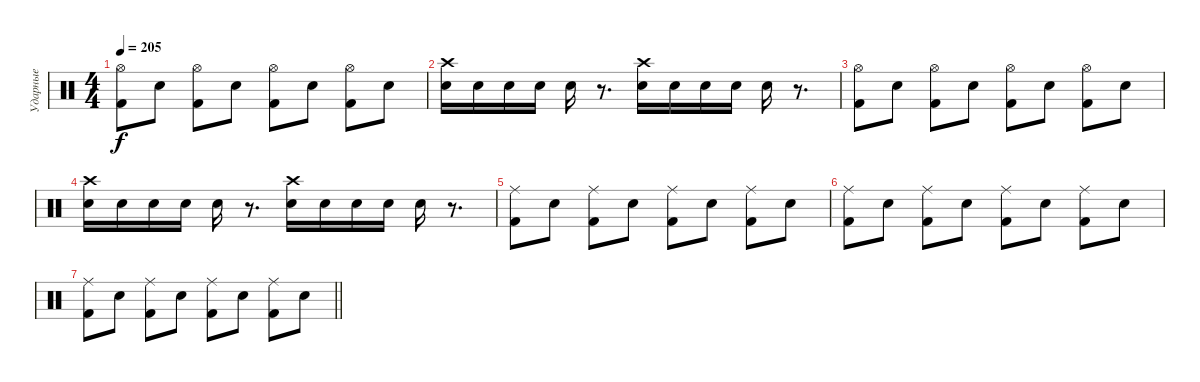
\track ("Ударные" "Ударные") {instrument percussion}
\staff {score}
\articulation defaults
\ts (4 4)
\tempo 205
\clef neutral
\ks c
("Hi-Hat (open)" "Kick (hit) 2").8{dy f} "Snare (hit) 2".8 ("Hi-Hat (open)" "Kick (hit) 2").8 "Snare (hit) 2".8 ("Hi-Hat (open)" "Kick (hit) 2").8 "Snare (hit) 2".8 ("Hi-Hat (open)" "Kick (hit) 2").8 "Snare (hit) 2".8 |
("Crash high (hit)" "Snare (hit) 2").16 "Snare (hit) 2".16 "Snare (hit) 2".16 "Snare (hit) 2".16 "Snare (hit) 2".16 r.8{d} ("Crash high (hit)" "Snare (hit) 2").16 "Snare (hit) 2".16 "Snare (hit) 2".16 "Snare (hit) 2".16 "Snare (hit) 2".16 r.8{d} |
("Hi-Hat (open)" "Kick (hit) 2").8 "Snare (hit) 2".8 ("Hi-Hat (open)" "Kick (hit) 2").8 "Snare (hit) 2".8 ("Hi-Hat (open)" "Kick (hit) 2").8 "Snare (hit) 2".8 ("Hi-Hat (open)" "Kick (hit) 2").8 "Snare (hit) 2".8 |
("Crash high (hit)" "Snare (hit) 2").16 "Snare (hit) 2".16 "Snare (hit) 2".16 "Snare (hit) 2".16 "Snare (hit) 2".16 r.8{d} ("Crash high (hit)" "Snare (hit) 2").16 "Snare (hit) 2".16 "Snare (hit) 2".16 "Snare (hit) 2".16 "Snare (hit) 2".16 r.8{d} |
("Ride (middle)" "Kick (hit) 2").8 "Snare (hit) 2".8 ("Ride (middle)" "Kick (hit) 2").8 "Snare (hit) 2".8 ("Ride (middle)" "Kick (hit) 2").8 "Snare (hit) 2".8 ("Ride (middle)" "Kick (hit) 2").8 "Snare (hit) 2".8 |
("Ride (middle)" "Kick (hit) 2").8 "Snare (hit) 2".8 ("Ride (middle)" "Kick (hit) 2").8 "Snare (hit) 2".8 ("Ride (middle)" "Kick (hit) 2").8 "Snare (hit) 2".8 ("Ride (middle)" "Kick (hit) 2").8 "Snare (hit) 2".8 |
\barLineRight lightlight
("Ride (middle)" "Kick (hit) 2").8 "Snare (hit) 2".8 ("Ride (middle)" "Kick (hit) 2").8 "Snare (hit) 2".8 ("Ride (middle)" "Kick (hit) 2").8 "Snare (hit) 2".8 ("Ride (middle)" "Kick (hit) 2").8 "Snare (hit) 2".8
